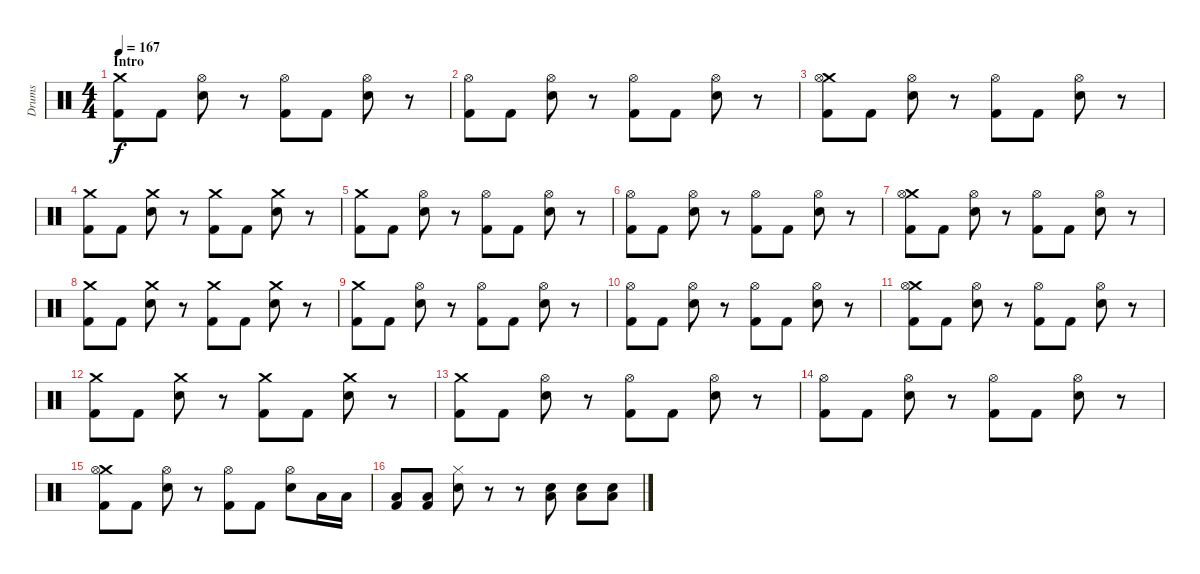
\track ("Drums" "Drums") {instrument percussion}
\staff {score}
\articulation defaults
\ts (4 4)
\section ("" "Intro")
\tempo 167
\clef neutral
\ks c
("Crash medium (hit)" "Kick (hit) 2").8{dy f} "Kick (hit) 2".8 ("Hi-Hat (open)" "Electric Snare (hit)").8 r.8 ("Hi-Hat (open)" "Kick (hit) 2").8 "Kick (hit) 2".8 ("Hi-Hat (open)" "Electric Snare (hit)").8 r.8 |
("Hi-Hat (open)" "Kick (hit) 2").8 "Kick (hit) 2".8 ("Hi-Hat (open)" "Electric Snare (hit)").8 r.8 ("Hi-Hat (open)" "Kick (hit) 2").8 "Kick (hit) 2".8 ("Hi-Hat (open)" "Electric Snare (hit)").8 r.8 |
("Crash medium (hit)" "Hi-Hat (open)" "Kick (hit) 2").8 "Kick (hit) 2".8 ("Hi-Hat (open)" "Electric Snare (hit)").8 r.8 ("Hi-Hat (open)" "Kick (hit) 2").8 "Kick (hit) 2".8 ("Hi-Hat (open)" "Electric Snare (hit)").8 r.8 |
("Crash medium (hit)" "Kick (hit) 2").8 "Kick (hit) 2".8 ("Crash medium (hit)" "Electric Snare (hit)").8 r.8 ("Crash medium (hit)" "Kick (hit) 2").8 "Kick (hit) 2".8 ("Crash medium (hit)" "Electric Snare (hit)").8 r.8 |
("Crash medium (hit)" "Kick (hit) 2").8 "Kick (hit) 2".8 ("Hi-Hat (open)" "Electric Snare (hit)").8 r.8 ("Hi-Hat (open)" "Kick (hit) 2").8 "Kick (hit) 2".8 ("Hi-Hat (open)" "Electric Snare (hit)").8 r.8 |
("Hi-Hat (open)" "Kick (hit) 2").8 "Kick (hit) 2".8 ("Hi-Hat (open)" "Electric Snare (hit)").8 r.8 ("Hi-Hat (open)" "Kick (hit) 2").8 "Kick (hit) 2".8 ("Hi-Hat (open)" "Electric Snare (hit)").8 r.8 |
("Crash medium (hit)" "Hi-Hat (open)" "Kick (hit) 2").8 "Kick (hit) 2".8 ("Hi-Hat (open)" "Electric Snare (hit)").8 r.8 ("Hi-Hat (open)" "Kick (hit) 2").8 "Kick (hit) 2".8 ("Hi-Hat (open)" "Electric Snare (hit)").8 r.8 |
("Crash medium (hit)" "Kick (hit) 2").8 "Kick (hit) 2".8 ("Crash medium (hit)" "Electric Snare (hit)").8 r.8 ("Crash medium (hit)" "Kick (hit) 2").8 "Kick (hit) 2".8 ("Crash medium (hit)" "Electric Snare (hit)").8 r.8 |
("Crash medium (hit)" "Kick (hit) 2").8 "Kick (hit) 2".8 ("Hi-Hat (open)" "Electric Snare (hit)").8 r.8 ("Hi-Hat (open)" "Kick (hit) 2").8 "Kick (hit) 2".8 ("Hi-Hat (open)" "Electric Snare (hit)").8 r.8 |
("Hi-Hat (open)" "Kick (hit) 2").8 "Kick (hit) 2".8 ("Hi-Hat (open)" "Electric Snare (hit)").8 r.8 ("Hi-Hat (open)" "Kick (hit) 2").8 "Kick (hit) 2".8 ("Hi-Hat (open)" "Electric Snare (hit)").8 r.8 |
("Crash medium (hit)" "Hi-Hat (open)" "Kick (hit) 2").8 "Kick (hit) 2".8 ("Hi-Hat (open)" "Electric Snare (hit)").8 r.8 ("Hi-Hat (open)" "Kick (hit) 2").8 "Kick (hit) 2".8 ("Hi-Hat (open)" "Electric Snare (hit)").8 r.8 |
("Crash medium (hit)" "Kick (hit) 2").8 "Kick (hit) 2".8 ("Crash medium (hit)" "Electric Snare (hit)").8 r.8 ("Crash medium (hit)" "Kick (hit) 2").8 "Kick (hit) 2".8 ("Crash medium (hit)" "Electric Snare (hit)").8 r.8 |
("Crash medium (hit)" "Kick (hit) 2").8 "Kick (hit) 2".8 ("Hi-Hat (open)" "Electric Snare (hit)").8 r.8 ("Hi-Hat (open)" "Kick (hit) 2").8 "Kick (hit) 2".8 ("Hi-Hat (open)" "Electric Snare (hit)").8 r.8 |
("Hi-Hat (open)" "Kick (hit) 2").8 "Kick (hit) 2".8 ("Hi-Hat (open)" "Electric Snare (hit)").8 r.8 ("Hi-Hat (open)" "Kick (hit) 2").8 "Kick (hit) 2".8 ("Hi-Hat (open)" "Electric Snare (hit)").8 r.8 |
("Crash medium (hit)" "Hi-Hat (open)" "Kick (hit) 2").8 "Kick (hit) 2".8 ("Hi-Hat (open)" "Electric Snare (hit)").8 r.8 ("Hi-Hat (open)" "Kick (hit) 2").8 "Kick (hit) 2".8 ("Hi-Hat (open)" "Electric Snare (hit)").8 "Low Tom (hit)".16 "Low Tom (hit)".16 |
("Low Tom (hit)" "Kick (hit) 2").8 ("Low Tom (hit)" "Kick (hit) 2").8 ("Hi-Hat (closed)" "Electric Snare (hit)").8 r.8 r.8 ("Low Tom (hit)" "Electric Snare (hit)").8 ("Low Tom (hit)" "Electric Snare (hit)").8 ("Low Tom (hit)" "Electric Snare (hit)").8
